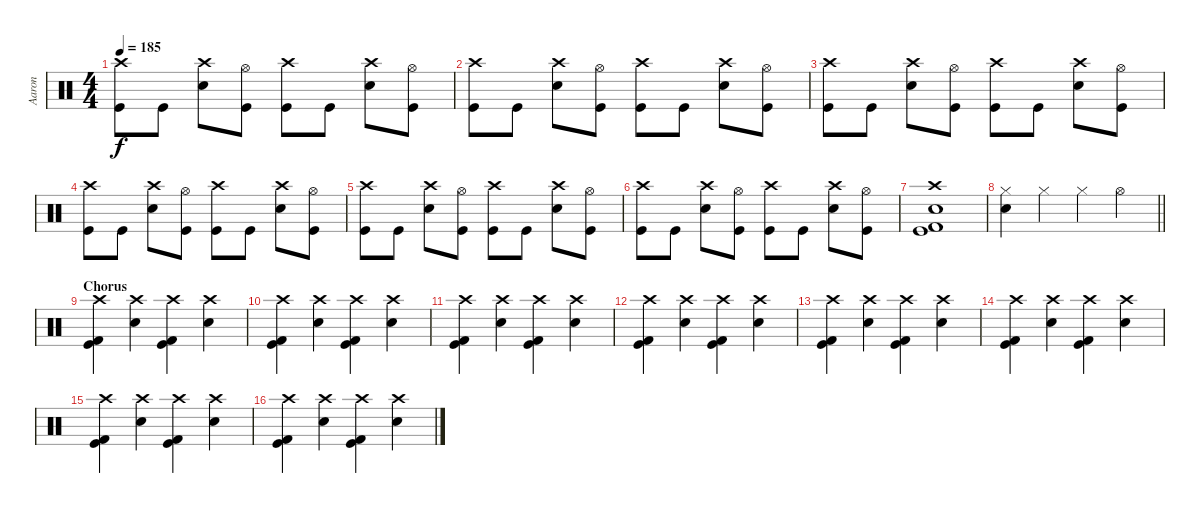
\track ("Aaron" "Aaron") {instrument percussion}
\staff {score}
\articulation defaults
\ts (4 4)
\tempo 185
\clef neutral
\ks c
("Crash high (hit)" "Kick (hit)").8{dy f} "Kick (hit)".8 ("Crash high (hit)" "Snare (hit) 2").8 ("Hi-Hat (open)" "Kick (hit)").8 ("Crash high (hit)" "Kick (hit)").8 "Kick (hit)".8 ("Crash high (hit)" "Snare (hit) 2").8 ("Hi-Hat (open)" "Kick (hit)").8 |
("Crash high (hit)" "Kick (hit)").8 "Kick (hit)".8 ("Crash high (hit)" "Snare (hit) 2").8 ("Hi-Hat (open)" "Kick (hit)").8 ("Crash high (hit)" "Kick (hit)").8 "Kick (hit)".8 ("Crash high (hit)" "Snare (hit) 2").8 ("Hi-Hat (open)" "Kick (hit)").8 |
("Crash high (hit)" "Kick (hit)").8 "Kick (hit)".8 ("Crash high (hit)" "Snare (hit) 2").8 ("Hi-Hat (open)" "Kick (hit)").8 ("Crash high (hit)" "Kick (hit)").8 "Kick (hit)".8 ("Crash high (hit)" "Snare (hit) 2").8 ("Hi-Hat (open)" "Kick (hit)").8 |
("Crash high (hit)" "Kick (hit)").8 "Kick (hit)".8 ("Crash high (hit)" "Snare (hit) 2").8 ("Hi-Hat (open)" "Kick (hit)").8 ("Crash high (hit)" "Kick (hit)").8 "Kick (hit)".8 ("Crash high (hit)" "Snare (hit) 2").8 ("Hi-Hat (open)" "Kick (hit)").8 |
("Crash high (hit)" "Kick (hit)").8 "Kick (hit)".8 ("Crash high (hit)" "Snare (hit) 2").8 ("Hi-Hat (open)" "Kick (hit)").8 ("Crash high (hit)" "Kick (hit)").8 "Kick (hit)".8 ("Crash high (hit)" "Snare (hit) 2").8 ("Hi-Hat (open)" "Kick (hit)").8 |
("Crash high (hit)" "Kick (hit)").8 "Kick (hit)".8 ("Crash high (hit)" "Snare (hit) 2").8 ("Hi-Hat (open)" "Kick (hit)").8 ("Crash high (hit)" "Kick (hit)").8 "Kick (hit)".8 ("Crash high (hit)" "Snare (hit) 2").8 ("Hi-Hat (open)" "Kick (hit)").8 |
("Crash high (hit)" "Snare (hit) 2" "Kick (hit) 2" "Kick (hit)").1 |
\barLineRight lightlight
("Hi-Hat (closed)" "Electric Snare (hit)").4 "Hi-Hat (closed)".4 "Hi-Hat (closed)".4 "Hi-Hat (open)".4 |
\section ("" "Chorus")
("Crash high (hit)" "Kick (hit)" "Kick (hit) 2").4 ("Crash high (hit)" "Snare (hit) 2").4 ("Crash high (hit)" "Kick (hit)" "Kick (hit) 2").4 ("Crash high (hit)" "Snare (hit) 2").4 |
("Crash high (hit)" "Kick (hit)" "Kick (hit) 2").4 ("Crash high (hit)" "Snare (hit) 2").4 ("Crash high (hit)" "Kick (hit)" "Kick (hit) 2").4 ("Crash high (hit)" "Snare (hit) 2").4 |
("Crash high (hit)" "Kick (hit)" "Kick (hit) 2").4 ("Crash high (hit)" "Snare (hit) 2").4 ("Crash high (hit)" "Kick (hit)" "Kick (hit) 2").4 ("Crash high (hit)" "Snare (hit) 2").4 |
("Crash high (hit)" "Kick (hit)" "Kick (hit) 2").4 ("Crash high (hit)" "Snare (hit) 2").4 ("Crash high (hit)" "Kick (hit)" "Kick (hit) 2").4 ("Crash high (hit)" "Snare (hit) 2").4 |
("Crash high (hit)" "Kick (hit)" "Kick (hit) 2").4 ("Crash high (hit)" "Snare (hit) 2").4 ("Crash high (hit)" "Kick (hit)" "Kick (hit) 2").4 ("Crash high (hit)" "Snare (hit) 2").4 |
("Crash high (hit)" "Kick (hit)" "Kick (hit) 2").4 ("Crash high (hit)" "Snare (hit) 2").4 ("Crash high (hit)" "Kick (hit)" "Kick (hit) 2").4 ("Crash high (hit)" "Snare (hit) 2").4 |
("Crash high (hit)" "Kick (hit)" "Kick (hit) 2").4 ("Crash high (hit)" "Snare (hit) 2").4 ("Crash high (hit)" "Kick (hit)" "Kick (hit) 2").4 ("Crash high (hit)" "Snare (hit) 2").4 |
("Crash high (hit)" "Kick (hit)" "Kick (hit) 2").4 ("Crash high (hit)" "Snare (hit) 2").4 ("Crash high (hit)" "Kick (hit)" "Kick (hit) 2").4 ("Crash high (hit)" "Snare (hit) 2").4
